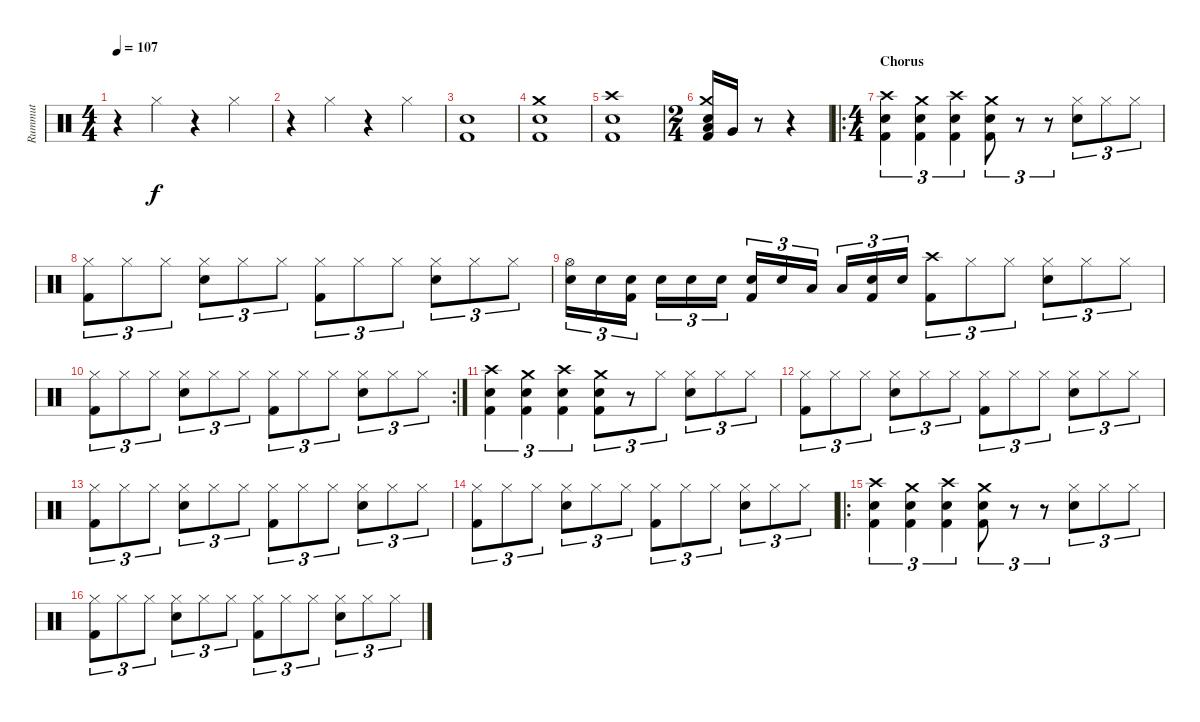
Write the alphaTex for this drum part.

\track ("Rummut" "Rummut") {instrument percussion}
\staff {score}
\articulation defaults
\ts (4 4)
\tempo 107
\clef neutral
\ks c
r.4{dy f} "Hi-Hat (closed)".4 r.4 "Hi-Hat (closed)".4 |
r.4 "Hi-Hat (closed)".4 r.4 "Hi-Hat (closed)".4 |
("Snare (hit) 2" "Kick (hit) 2").1{volume 13} |
("Crash medium (hit)" "Snare (hit) 2" "Kick (hit) 2").1 |
("Crash high (hit)" "Snare (hit) 2" "Kick (hit) 2").1 |
\ts (2 4)
("Crash medium (hit)" "Low Tom (hit)" "Snare (hit) 2" "Kick (hit) 2").16 "Very Low Tom (hit)".16 r.8 r.4 |
\ro
\ts (4 4)
\section ("" "Chorus")
("Crash high (hit)" "Snare (hit) 2" "Kick (hit) 2").4{tu (3 2)} ("Crash medium (hit)" "Snare (hit) 2" "Kick (hit) 2").4{tu (3 2)} ("Crash high (hit)" "Snare (hit) 2" "Kick (hit) 2").4{tu (3 2)} ("Crash medium (hit)" "Snare (hit) 2" "Kick (hit) 2").8{tu (3 2)} r.8{tu (3 2)} r.8{tu (3 2)} ("Hi-Hat (closed)" "Snare (hit) 2").8{tu (3 2)} "Hi-Hat (closed)".8{tu (3 2)} "Hi-Hat (closed)".8{tu (3 2)} |
("Hi-Hat (closed)" "Kick (hit) 2").8{tu (3 2)} "Hi-Hat (closed)".8{tu (3 2)} "Hi-Hat (closed)".8{tu (3 2)} ("Hi-Hat (closed)" "Snare (hit) 2").8{tu (3 2)} "Hi-Hat (closed)".8{tu (3 2)} "Hi-Hat (closed)".8{tu (3 2)} ("Hi-Hat (closed)" "Kick (hit) 2").8{tu (3 2)} "Hi-Hat (closed)".8{tu (3 2)} "Hi-Hat (closed)".8{tu (3 2)} ("Hi-Hat (closed)" "Snare (hit) 2").8{tu (3 2)} "Hi-Hat (closed)".8{tu (3 2)} "Hi-Hat (closed)".8{tu (3 2)} |
("Hi-Hat (open)" "Snare (hit) 2").16{tu (3 2)} "Snare (hit)".16{tu (3 2)} ("Snare (hit)" "Kick (hit) 2").16{tu (3 2)} "Snare (hit)".16{tu (3 2)} "Snare (hit) 2".16{tu (3 2)} "Snare (hit)".16{tu (3 2)} ("Snare (hit)" "Kick (hit) 2").16{tu (3 2)} "Snare (hit)".16{tu (3 2)} "Low Tom (hit)".16{tu (3 2)} "Low Tom (hit)".16{tu (3 2)} ("Snare (hit)" "Kick (hit) 2").16{tu (3 2)} "Snare (hit)".16{tu (3 2)} ("Crash high (hit)" "Kick (hit) 2").8{tu (3 2)} "Hi-Hat (closed)".8{tu (3 2)} "Hi-Hat (closed)".8{tu (3 2)} ("Hi-Hat (closed)" "Snare (hit) 2").8{tu (3 2)} "Hi-Hat (closed)".8{tu (3 2)} "Hi-Hat (closed)".8{tu (3 2)} |
\rc 2
("Hi-Hat (closed)" "Kick (hit) 2").8{tu (3 2)} "Hi-Hat (closed)".8{tu (3 2)} "Hi-Hat (closed)".8{tu (3 2)} ("Hi-Hat (closed)" "Snare (hit) 2").8{tu (3 2)} "Hi-Hat (closed)".8{tu (3 2)} "Hi-Hat (closed)".8{tu (3 2)} ("Hi-Hat (closed)" "Kick (hit) 2").8{tu (3 2)} "Hi-Hat (closed)".8{tu (3 2)} "Hi-Hat (closed)".8{tu (3 2)} ("Hi-Hat (closed)" "Snare (hit) 2").8{tu (3 2)} "Hi-Hat (closed)".8{tu (3 2)} "Hi-Hat (closed)".8{tu (3 2)} |
("Crash high (hit)" "Snare (hit) 2" "Kick (hit) 2").4{tu (3 2)} ("Crash medium (hit)" "Snare (hit) 2" "Kick (hit) 2").4{tu (3 2)} ("Crash high (hit)" "Snare (hit) 2" "Kick (hit) 2").4{tu (3 2)} ("Crash medium (hit)" "Snare (hit) 2" "Kick (hit) 2").8{tu (3 2)} r.8{tu (3 2)} "Hi-Hat (closed)".8{tu (3 2)} ("Hi-Hat (closed)" "Snare (hit) 2").8{tu (3 2)} "Hi-Hat (closed)".8{tu (3 2)} "Hi-Hat (closed)".8{tu (3 2)} |
("Hi-Hat (closed)" "Kick (hit) 2").8{tu (3 2)} "Hi-Hat (closed)".8{tu (3 2)} "Hi-Hat (closed)".8{tu (3 2)} ("Hi-Hat (closed)" "Snare (hit) 2").8{tu (3 2)} "Hi-Hat (closed)".8{tu (3 2)} "Hi-Hat (closed)".8{tu (3 2)} ("Hi-Hat (closed)" "Kick (hit) 2").8{tu (3 2)} "Hi-Hat (closed)".8{tu (3 2)} "Hi-Hat (closed)".8{tu (3 2)} ("Hi-Hat (closed)" "Snare (hit) 2").8{tu (3 2)} "Hi-Hat (closed)".8{tu (3 2)} "Hi-Hat (closed)".8{tu (3 2)} |
("Hi-Hat (closed)" "Kick (hit) 2").8{tu (3 2)} "Hi-Hat (closed)".8{tu (3 2)} "Hi-Hat (closed)".8{tu (3 2)} ("Hi-Hat (closed)" "Snare (hit) 2").8{tu (3 2)} "Hi-Hat (closed)".8{tu (3 2)} "Hi-Hat (closed)".8{tu (3 2)} ("Hi-Hat (closed)" "Kick (hit) 2").8{tu (3 2)} "Hi-Hat (closed)".8{tu (3 2)} "Hi-Hat (closed)".8{tu (3 2)} ("Hi-Hat (closed)" "Snare (hit) 2").8{tu (3 2)} "Hi-Hat (closed)".8{tu (3 2)} "Hi-Hat (closed)".8{tu (3 2)} |
("Hi-Hat (closed)" "Kick (hit) 2").8{tu (3 2)} "Hi-Hat (closed)".8{tu (3 2)} "Hi-Hat (closed)".8{tu (3 2)} ("Hi-Hat (closed)" "Snare (hit) 2").8{tu (3 2)} "Hi-Hat (closed)".8{tu (3 2)} "Hi-Hat (closed)".8{tu (3 2)} ("Hi-Hat (closed)" "Kick (hit) 2").8{tu (3 2)} "Hi-Hat (closed)".8{tu (3 2)} "Hi-Hat (closed)".8{tu (3 2)} ("Hi-Hat (closed)" "Snare (hit) 2").8{tu (3 2)} "Hi-Hat (closed)".8{tu (3 2)} "Hi-Hat (closed)".8{tu (3 2)} |
\ro
("Crash high (hit)" "Snare (hit) 2" "Kick (hit) 2").4{tu (3 2)} ("Crash medium (hit)" "Snare (hit) 2" "Kick (hit) 2").4{tu (3 2)} ("Crash high (hit)" "Snare (hit) 2" "Kick (hit) 2").4{tu (3 2)} ("Crash medium (hit)" "Snare (hit) 2" "Kick (hit) 2").8{tu (3 2)} r.8{tu (3 2)} r.8{tu (3 2)} ("Hi-Hat (closed)" "Snare (hit) 2").8{tu (3 2)} "Hi-Hat (closed)".8{tu (3 2)} "Hi-Hat (closed)".8{tu (3 2)} |
("Hi-Hat (closed)" "Kick (hit) 2").8{tu (3 2)} "Hi-Hat (closed)".8{tu (3 2)} "Hi-Hat (closed)".8{tu (3 2)} ("Hi-Hat (closed)" "Snare (hit) 2").8{tu (3 2)} "Hi-Hat (closed)".8{tu (3 2)} "Hi-Hat (closed)".8{tu (3 2)} ("Hi-Hat (closed)" "Kick (hit) 2").8{tu (3 2)} "Hi-Hat (closed)".8{tu (3 2)} "Hi-Hat (closed)".8{tu (3 2)} ("Hi-Hat (closed)" "Snare (hit) 2").8{tu (3 2)} "Hi-Hat (closed)".8{tu (3 2)} "Hi-Hat (closed)".8{tu (3 2)}
